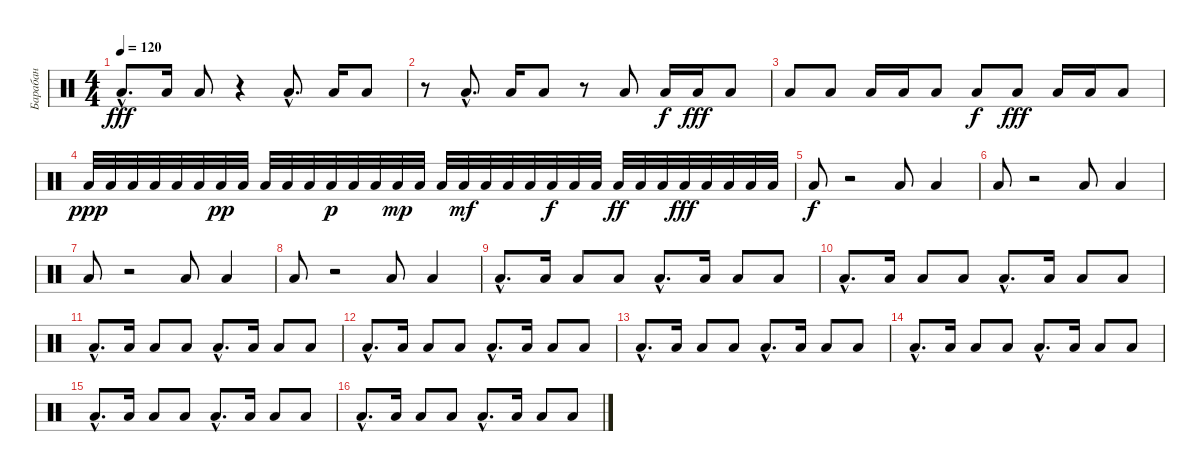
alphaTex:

\track ("Барабан" "Барабан") {instrument percussion}
\staff {score}
\articulation defaults
\ts (4 4)
\tempo 120
\clef neutral
\ks c "Low Floor Tom (hit)"{hac}.8{d dy fff} "Low Floor Tom (hit)".16 "Low Floor Tom (hit)".8
r.4 "Low Floor Tom (hit)"{hac}.8{d} "Low Floor Tom (hit)".16 "Low Floor Tom (hit)".8 |
r.8 "Low Floor Tom (hit)"{hac}.8{d} "Low Floor Tom (hit)".16 "Low Floor Tom (hit)".8 r.8 "Low Floor Tom (hit)".8 "Low Floor Tom (hit)".16{dy f} "Low Floor Tom (hit)".16{dy fff} "Low Floor Tom (hit)".8 |
"Low Floor Tom (hit)".8 "Low Floor Tom (hit)".8 "Low Floor Tom (hit)".16 "Low Floor Tom (hit)".16 "Low Floor Tom (hit)".8 "Low Floor Tom (hit)".8{dy f} "Low Floor Tom (hit)".8{dy fff} "Low Floor Tom (hit)".16 "Low Floor Tom (hit)".16 "Low Floor Tom (hit)".8 |
"Low Floor Tom (hit)".32{dy ppp} "Low Floor Tom (hit)".32 "Low Floor Tom (hit)".32 "Low Floor Tom (hit)".32 "Low Floor Tom (hit)".32 "Low Floor Tom (hit)".32 "Low Floor Tom (hit)".32{dy pp} "Low Floor Tom (hit)".32 "Low Floor Tom (hit)".32 "Low Floor Tom (hit)".32 "Low Floor Tom (hit)".32 "Low Floor Tom (hit)".32{dy p} "Low Floor Tom (hit)".32 "Low Floor Tom (hit)".32 "Low Floor Tom (hit)".32{dy mp} "Low Floor Tom (hit)".32 "Low Floor Tom (hit)".32 "Low Floor Tom (hit)".32{dy mf} "Low Floor Tom (hit)".32 "Low Floor Tom (hit)".32 "Low Floor Tom (hit)".32 "Low Floor Tom (hit)".32{dy f} "Low Floor Tom (hit)".32 "Low Floor Tom (hit)".32 "Low Floor Tom (hit)".32{dy ff} "Low Floor Tom (hit)".32 "Low Floor Tom (hit)".32 "Low Floor Tom (hit)".32{dy fff} "Low Floor Tom (hit)".32 "Low Floor Tom (hit)".32 "Low Floor Tom (hit)".32 "Low Floor Tom (hit)".32 |
"Low Floor Tom (hit)".8{dy f} r.2 "Low Floor Tom (hit)".8 "Low Floor Tom (hit)".4 |
"Low Floor Tom (hit)".8 r.2 "Low Floor Tom (hit)".8 "Low Floor Tom (hit)".4 |
"Low Floor Tom (hit)".8 r.2 "Low Floor Tom (hit)".8 "Low Floor Tom (hit)".4 |
"Low Floor Tom (hit)".8 r.2 "Low Floor Tom (hit)".8 "Low Floor Tom (hit)".4 |
"Low Floor Tom (hit)"{hac}.8{d} "Low Floor Tom (hit)".16 "Low Floor Tom (hit)".8 "Low Floor Tom (hit)".8 "Low Floor Tom (hit)"{hac}.8{d} "Low Floor Tom (hit)".16 "Low Floor Tom (hit)".8 "Low Floor Tom (hit)".8 |
"Low Floor Tom (hit)"{hac}.8{d} "Low Floor Tom (hit)".16 "Low Floor Tom (hit)".8 "Low Floor Tom (hit)".8 "Low Floor Tom (hit)"{hac}.8{d} "Low Floor Tom (hit)".16 "Low Floor Tom (hit)".8 "Low Floor Tom (hit)".8 |
"Low Floor Tom (hit)"{hac}.8{d} "Low Floor Tom (hit)".16 "Low Floor Tom (hit)".8 "Low Floor Tom (hit)".8 "Low Floor Tom (hit)"{hac}.8{d} "Low Floor Tom (hit)".16 "Low Floor Tom (hit)".8 "Low Floor Tom (hit)".8 |
"Low Floor Tom (hit)"{hac}.8{d} "Low Floor Tom (hit)".16 "Low Floor Tom (hit)".8 "Low Floor Tom (hit)".8 "Low Floor Tom (hit)"{hac}.8{d} "Low Floor Tom (hit)".16 "Low Floor Tom (hit)".8 "Low Floor Tom (hit)".8 |
"Low Floor Tom (hit)"{hac}.8{d} "Low Floor Tom (hit)".16 "Low Floor Tom (hit)".8 "Low Floor Tom (hit)".8 "Low Floor Tom (hit)"{hac}.8{d} "Low Floor Tom (hit)".16 "Low Floor Tom (hit)".8 "Low Floor Tom (hit)".8 |
"Low Floor Tom (hit)"{hac}.8{d} "Low Floor Tom (hit)".16 "Low Floor Tom (hit)".8 "Low Floor Tom (hit)".8 "Low Floor Tom (hit)"{hac}.8{d} "Low Floor Tom (hit)".16 "Low Floor Tom (hit)".8 "Low Floor Tom (hit)".8 |
"Low Floor Tom (hit)"{hac}.8{d} "Low Floor Tom (hit)".16 "Low Floor Tom (hit)".8 "Low Floor Tom (hit)".8 "Low Floor Tom (hit)"{hac}.8{d} "Low Floor Tom (hit)".16 "Low Floor Tom (hit)".8 "Low Floor Tom (hit)".8 |
"Low Floor Tom (hit)"{hac}.8{d} "Low Floor Tom (hit)".16 "Low Floor Tom (hit)".8 "Low Floor Tom (hit)".8 "Low Floor Tom (hit)"{hac}.8{d} "Low Floor Tom (hit)".16 "Low Floor Tom (hit)".8 "Low Floor Tom (hit)".8
